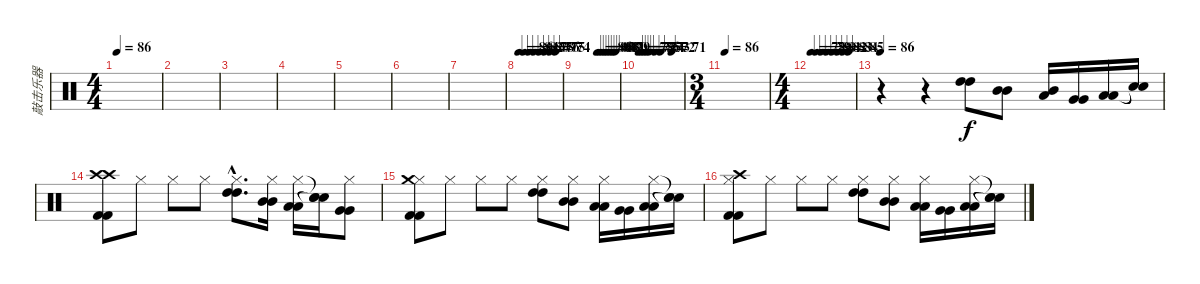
\track ("敲击乐器" "敲击乐器") {instrument percussion}
\staff {score}
\articulation defaults
\ts (4 4)
\tempo 86
\tempo 73
\tempo 86
\clef neutral
\ks c
|
|
|
|
|
|
|
\tempo 86
\tempo (84 0.125)
\tempo (82 0.25)
\tempo (80 0.375)
\tempo (78 0.5)
\tempo (76 0.625)
\tempo (75 0.75)
\tempo (74 0.875)
|
\tempo (86 0.5)
\tempo (85 0.5625)
\tempo (84 0.625)
\tempo (83 0.6875)
\tempo (82 0.75)
\tempo (81 0.8125)
\tempo (80 0.875)
\tempo (79 0.9375)
|
\tempo 78
\tempo (77 0.0625)
\tempo (76 0.125)
\tempo (75 0.1875)
\tempo (74 0.25)
\tempo (73 0.375)
\tempo (72 0.5)
\tempo (71 0.75)
|
\ts (3 4)
\tempo 86
|
\ts (4 4)
\tempo 78
\tempo (79 0.125)
\tempo (80 0.25)
\tempo (81 0.375)
\tempo (82 0.5)
\tempo (83 0.625)
\tempo (84 0.75)
\tempo (85 0.875)
|
\tempo 86
r.4 r.4 ("High Tom (hit)" "High Tom (hit)").8 ("Mid Tom (hit)" "Mid Tom (hit)").8 ("Mid Tom (hit)" "Low Tom (hit)").16 ("Very Low Tom (hit)" "Very Low Tom (hit)").16 ("Low Floor Tom (hit)" "Low Floor Tom (hit)").16 ("Snare (hit)"{t} "Snare (hit)"{t}).16 |
("Crash high (hit)" "Crash high (hit)" "Kick (hit) 2" "Kick (hit) 2").8 "Hi-Hat (closed)".8 "Hi-Hat (closed)".8 "Hi-Hat (closed)".8 ("Hi-Hat (closed)"{hac} "High Tom (hit)"{hac} "High Tom (hit)"{hac}).8{d} ("Hi-Hat (closed)" "Mid Tom (hit)" "Mid Tom (hit)").16 ("Hi-Hat (closed)" "Low Tom (hit)" "Low Tom (hit)").16 ("Snare (hit)"{t} "Snare (hit)"{t} "Snare (hit)"{t}).16 ("Hi-Hat (closed)" "Very Low Tom (hit)" "Very Low Tom (hit)").8 |
("Hi-Hat (closed)" "Crash medium (hit)" "Kick (hit) 2" "Kick (hit) 2").8 "Hi-Hat (closed)".8 "Hi-Hat (closed)".8 "Hi-Hat (closed)".8 ("Hi-Hat (closed)" "High Tom (hit)" "High Tom (hit)").8 ("Hi-Hat (closed)" "Mid Tom (hit)" "Mid Tom (hit)").8 ("Hi-Hat (closed)" "Low Tom (hit)" "Low Tom (hit)").16 ("Very Low Tom (hit)" "Very Low Tom (hit)").16 ("Hi-Hat (closed)" "Low Floor Tom (hit)" "Low Floor Tom (hit)").16 ("Snare (hit)"{t} "Snare (hit)"{t} "Snare (hit)"{t}).16 |
("Hi-Hat (closed)" "Crash high (hit)" "Kick (hit) 2" "Kick (hit) 2").8 "Hi-Hat (closed)".8 "Hi-Hat (closed)".8 "Hi-Hat (closed)".8 ("Hi-Hat (closed)" "High Tom (hit)" "High Tom (hit)").8 ("Hi-Hat (closed)" "Mid Tom (hit)" "Mid Tom (hit)").8 ("Hi-Hat (closed)" "Low Tom (hit)" "Low Tom (hit)").16 ("Very Low Tom (hit)" "Very Low Tom (hit)").16 ("Hi-Hat (closed)" "Low Floor Tom (hit)" "Low Floor Tom (hit)").16 ("Snare (hit)"{t} "Snare (hit)"{t} "Snare (hit)"{t}).16
